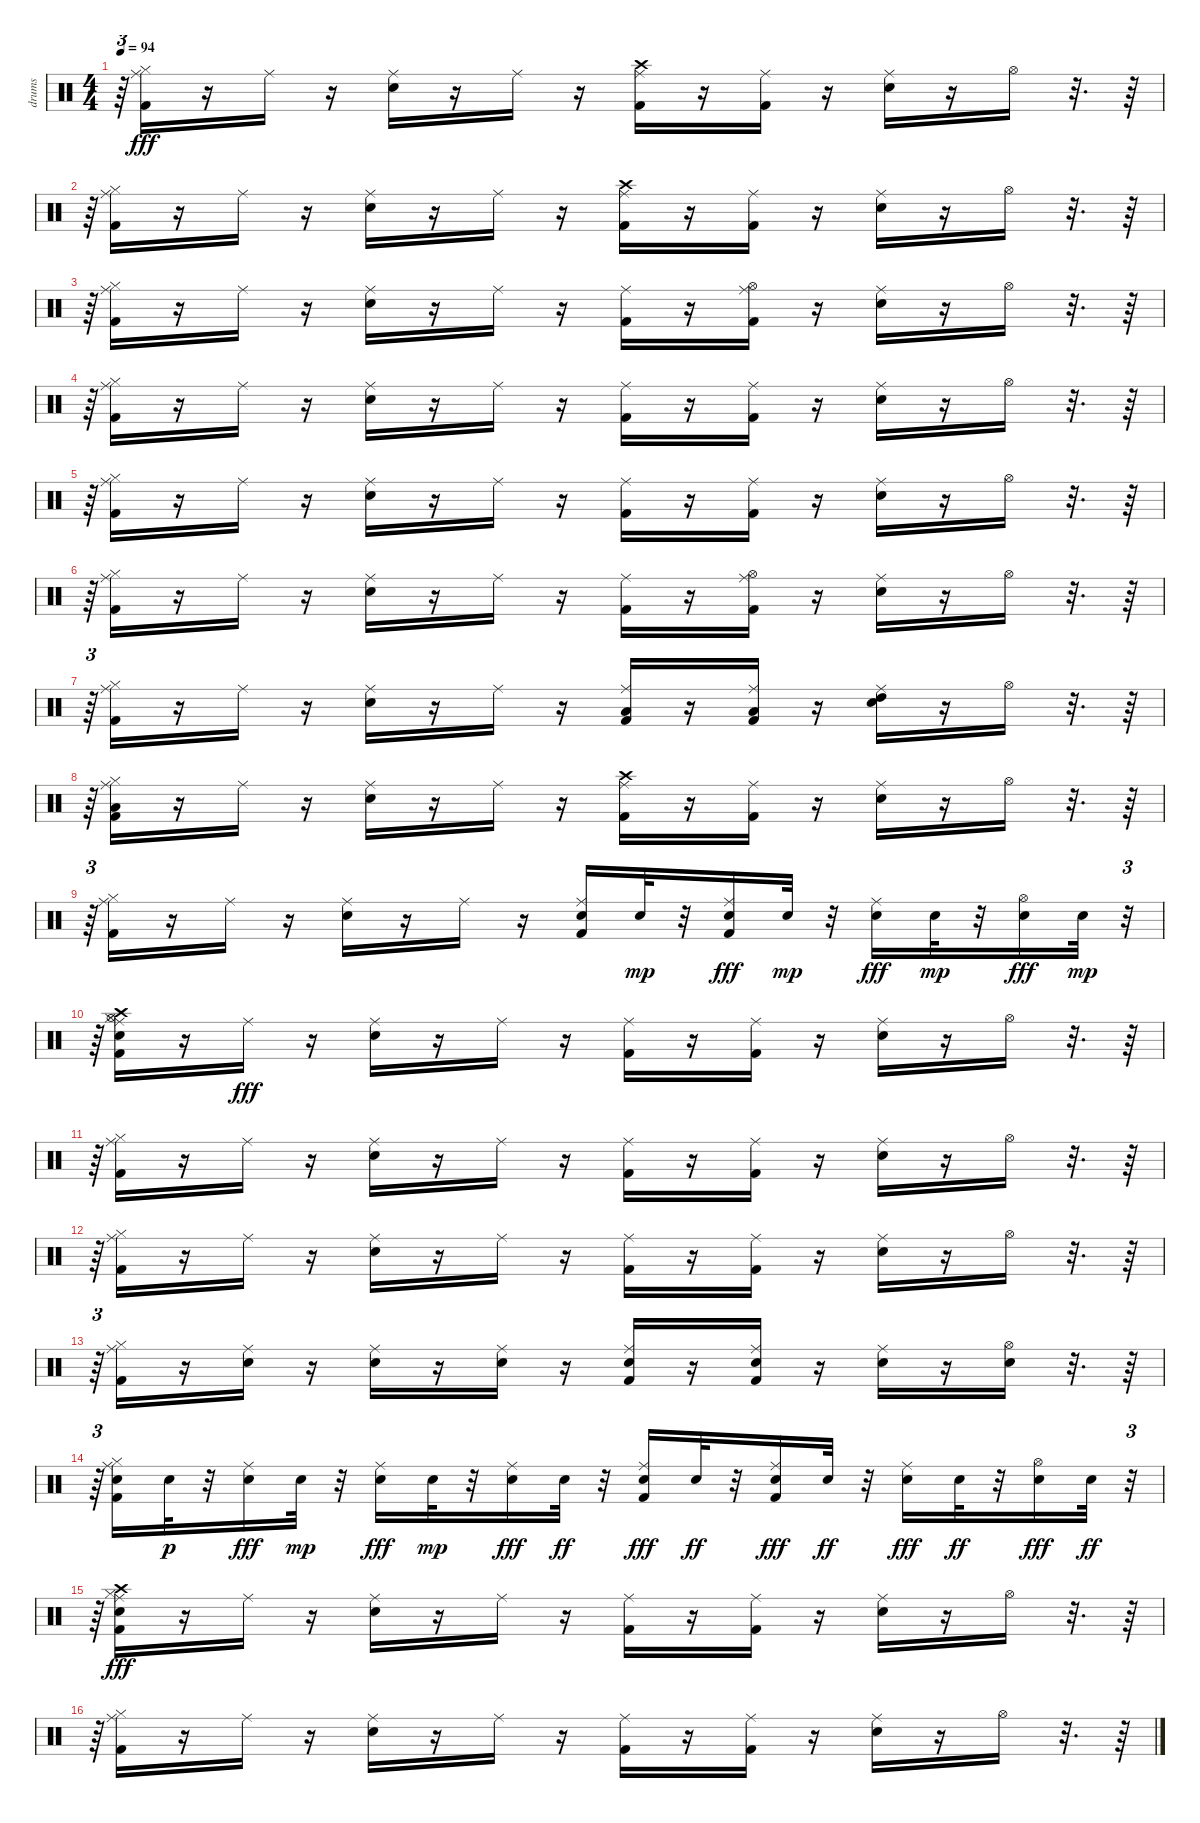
\track ("drums               " "drums     ") {instrument percussion}
\staff {score}
\articulation defaults
\ts (4 4)
\tempo 94
\clef neutral
\ks c
r.64{tu (3 2) dy fff} ("Kick (hit) 2" "Ride (middle)" "Hi-Hat (closed)").16 r.16 "Ride (middle)".16 r.16 ("Snare (hit) 2" "Ride (middle)").16 r.16 "Ride (middle)".16 r.16 ("Kick (hit) 2" "Crash high (hit)" "Ride (middle)").16 r.16 ("Kick (hit) 2" "Ride (middle)").16 r.16 ("Snare (hit) 2" "Ride (middle)").16 r.16 "Hi-Hat (open)".16 r.32{d} r.64 |
r.64{tu (3 2)} ("Kick (hit) 2" "Ride (middle)" "Hi-Hat (closed)").16 r.16 "Ride (middle)".16 r.16 ("Snare (hit) 2" "Ride (middle)").16 r.16 "Ride (middle)".16 r.16 ("Kick (hit) 2" "Crash high (hit)" "Ride (middle)").16 r.16 ("Kick (hit) 2" "Ride (middle)").16 r.16 ("Snare (hit) 2" "Ride (middle)").16 r.16 "Hi-Hat (open)".16 r.32{d} r.64 |
r.64{tu (3 2)} ("Kick (hit) 2" "Ride (middle)" "Hi-Hat (closed)").16 r.16 "Ride (middle)".16 r.16 ("Snare (hit) 2" "Ride (middle)").16 r.16 "Ride (middle)".16 r.16 ("Kick (hit) 2" "Ride (middle)").16 r.16 ("Kick (hit) 2" "Hi-Hat (open)" "Ride (middle)").16 r.16 ("Snare (hit) 2" "Ride (middle)").16 r.16 "Hi-Hat (open)".16 r.32{d} r.64 |
r.64{tu (3 2)} ("Kick (hit) 2" "Ride (middle)" "Hi-Hat (closed)").16 r.16 "Ride (middle)".16 r.16 ("Snare (hit) 2" "Ride (middle)").16 r.16 "Ride (middle)".16 r.16 ("Kick (hit) 2" "Ride (middle)").16 r.16 ("Kick (hit) 2" "Ride (middle)").16 r.16 ("Snare (hit) 2" "Ride (middle)").16 r.16 "Hi-Hat (open)".16 r.32{d} r.64 |
r.64{tu (3 2)} ("Kick (hit) 2" "Ride (middle)" "Hi-Hat (closed)").16 r.16 "Ride (middle)".16 r.16 ("Snare (hit) 2" "Ride (middle)").16 r.16 "Ride (middle)".16 r.16 ("Kick (hit) 2" "Ride (middle)").16 r.16 ("Kick (hit) 2" "Ride (middle)").16 r.16 ("Snare (hit) 2" "Ride (middle)").16 r.16 "Hi-Hat (open)".16 r.32{d} r.64 |
r.64{tu (3 2)} ("Kick (hit) 2" "Ride (middle)" "Hi-Hat (closed)").16 r.16 "Ride (middle)".16 r.16 ("Snare (hit) 2" "Ride (middle)").16 r.16 "Ride (middle)".16 r.16 ("Kick (hit) 2" "Ride (middle)").16 r.16 ("Kick (hit) 2" "Hi-Hat (open)" "Ride (middle)").16 r.16 ("Snare (hit) 2" "Ride (middle)").16 r.16 "Hi-Hat (open)".16 r.32{d} r.64 |
r.64{tu (3 2)} ("Kick (hit) 2" "Ride (middle)" "Hi-Hat (closed)").16 r.16 "Ride (middle)".16 r.16 ("Snare (hit) 2" "Ride (middle)").16 r.16 "Ride (middle)".16 r.16 ("Kick (hit) 2" "Low Floor Tom (hit)" "Ride (middle)").16 r.16 ("Kick (hit) 2" "Low Tom (hit)" "Ride (middle)").16 r.16 ("Snare (hit) 2" "High Tom (hit)" "Ride (middle)").16 r.16 "Hi-Hat (open)".16 r.32{d} r.64 |
r.64{tu (3 2)} ("Kick (hit) 2" "Ride (middle)" "Low Floor Tom (hit)" "Hi-Hat (closed)").16 r.16 "Ride (middle)".16 r.16 ("Snare (hit) 2" "Ride (middle)").16 r.16 "Ride (middle)".16 r.16 ("Kick (hit) 2" "Crash high (hit)" "Ride (middle)").16 r.16 ("Kick (hit) 2" "Ride (middle)").16 r.16 ("Snare (hit) 2" "Ride (middle)").16 r.16 "Hi-Hat (open)".16 r.32{d} r.64 |
r.64{tu (3 2)} ("Kick (hit) 2" "Ride (middle)" "Hi-Hat (closed)").16 r.16 "Ride (middle)".16 r.16 ("Snare (hit) 2" "Ride (middle)").16 r.16 "Ride (middle)".16 r.16 ("Kick (hit) 2" "Snare (hit) 2" "Ride (middle)").16 "Snare (hit) 2".32{dy mp} r.32 ("Kick (hit) 2" "Snare (hit) 2" "Ride (middle)").16{dy fff} "Snare (hit) 2".32{dy mp} r.32 ("Snare (hit) 2" "Ride (middle)").16{dy fff} "Snare (hit) 2".32{dy mp} r.32 ("Snare (hit) 2" "Hi-Hat (open)").16{dy fff} "Snare (hit) 2".32{dy mp} r.32{tu (3 2)} |
r.64{tu (3 2)} ("Kick (hit) 2" "Ride (middle)" "Snare (hit) 2" "Hi-Hat (closed)" "Hi-Hat (open)" "Crash high (hit)").16 r.16 "Ride (middle)".16{dy fff} r.16 ("Snare (hit) 2" "Ride (middle)").16 r.16 "Ride (middle)".16 r.16 ("Kick (hit) 2" "Ride (middle)").16 r.16 ("Kick (hit) 2" "Ride (middle)").16 r.16 ("Snare (hit) 2" "Ride (middle)").16 r.16 "Hi-Hat (open)".16 r.32{d} r.64 |
r.64{tu (3 2)} ("Kick (hit) 2" "Ride (middle)" "Hi-Hat (closed)").16 r.16 "Ride (middle)".16 r.16 ("Snare (hit) 2" "Ride (middle)").16 r.16 "Ride (middle)".16 r.16 ("Kick (hit) 2" "Ride (middle)").16 r.16 ("Kick (hit) 2" "Ride (middle)").16 r.16 ("Snare (hit) 2" "Ride (middle)").16 r.16 "Hi-Hat (open)".16 r.32{d} r.64 |
r.64{tu (3 2)} ("Kick (hit) 2" "Ride (middle)" "Hi-Hat (closed)").16 r.16 "Ride (middle)".16 r.16 ("Snare (hit) 2" "Ride (middle)").16 r.16 "Ride (middle)".16 r.16 ("Kick (hit) 2" "Ride (middle)").16 r.16 ("Kick (hit) 2" "Ride (middle)").16 r.16 ("Snare (hit) 2" "Ride (middle)").16 r.16 "Hi-Hat (open)".16 r.32{d} r.64 |
r.64{tu (3 2)} ("Kick (hit) 2" "Ride (middle)" "Hi-Hat (closed)").16 r.16 ("Snare (hit) 2" "Ride (middle)").16 r.16 ("Snare (hit) 2" "Ride (middle)").16 r.16 ("Snare (hit) 2" "Ride (middle)").16 r.16 ("Kick (hit) 2" "Snare (hit) 2" "Ride (middle)").16 r.16 ("Kick (hit) 2" "Snare (hit) 2" "Ride (middle)").16 r.16 ("Snare (hit) 2" "Ride (middle)").16 r.16 ("Snare (hit) 2" "Hi-Hat (open)").16 r.32{d} r.64 |
r.64{tu (3 2)} ("Kick (hit) 2" "Ride (middle)" "Snare (hit) 2" "Hi-Hat (closed)").16 "Snare (hit) 2".32{dy p} r.32 ("Snare (hit) 2" "Ride (middle)").16{dy fff} "Snare (hit) 2".32{dy mp} r.32 ("Snare (hit) 2" "Ride (middle)").16{dy fff} "Snare (hit) 2".32{dy mp} r.32 ("Snare (hit) 2" "Ride (middle)").16{dy fff} "Snare (hit) 2".32{dy ff} r.32 ("Kick (hit) 2" "Snare (hit) 2" "Ride (middle)").16{dy fff} "Snare (hit) 2".32{dy ff} r.32 ("Kick (hit) 2" "Snare (hit) 2" "Ride (middle)").16{dy fff} "Snare (hit) 2".32{dy ff} r.32 ("Snare (hit) 2" "Ride (middle)").16{dy fff} "Snare (hit) 2".32{dy ff} r.32 ("Snare (hit) 2" "Hi-Hat (open)").16{dy fff} "Snare (hit) 2".32{dy ff} r.32{tu (3 2)} |
r.64{tu (3 2)} ("Kick (hit) 2" "Ride (middle)" "Hi-Hat (closed)" "Snare (hit) 2" "Crash high (hit)").16{dy fff} r.16 "Ride (middle)".16 r.16 ("Snare (hit) 2" "Ride (middle)").16 r.16 "Ride (middle)".16 r.16 ("Kick (hit) 2" "Ride (middle)").16 r.16 ("Kick (hit) 2" "Ride (middle)").16 r.16 ("Snare (hit) 2" "Ride (middle)").16 r.16 "Hi-Hat (open)".16 r.32{d} r.64 |
r.64{tu (3 2)} ("Kick (hit) 2" "Ride (middle)" "Hi-Hat (closed)").16 r.16 "Ride (middle)".16 r.16 ("Snare (hit) 2" "Ride (middle)").16 r.16 "Ride (middle)".16 r.16 ("Kick (hit) 2" "Ride (middle)").16 r.16 ("Kick (hit) 2" "Ride (middle)").16 r.16 ("Snare (hit) 2" "Ride (middle)").16 r.16 "Hi-Hat (open)".16 r.32{d} r.64
